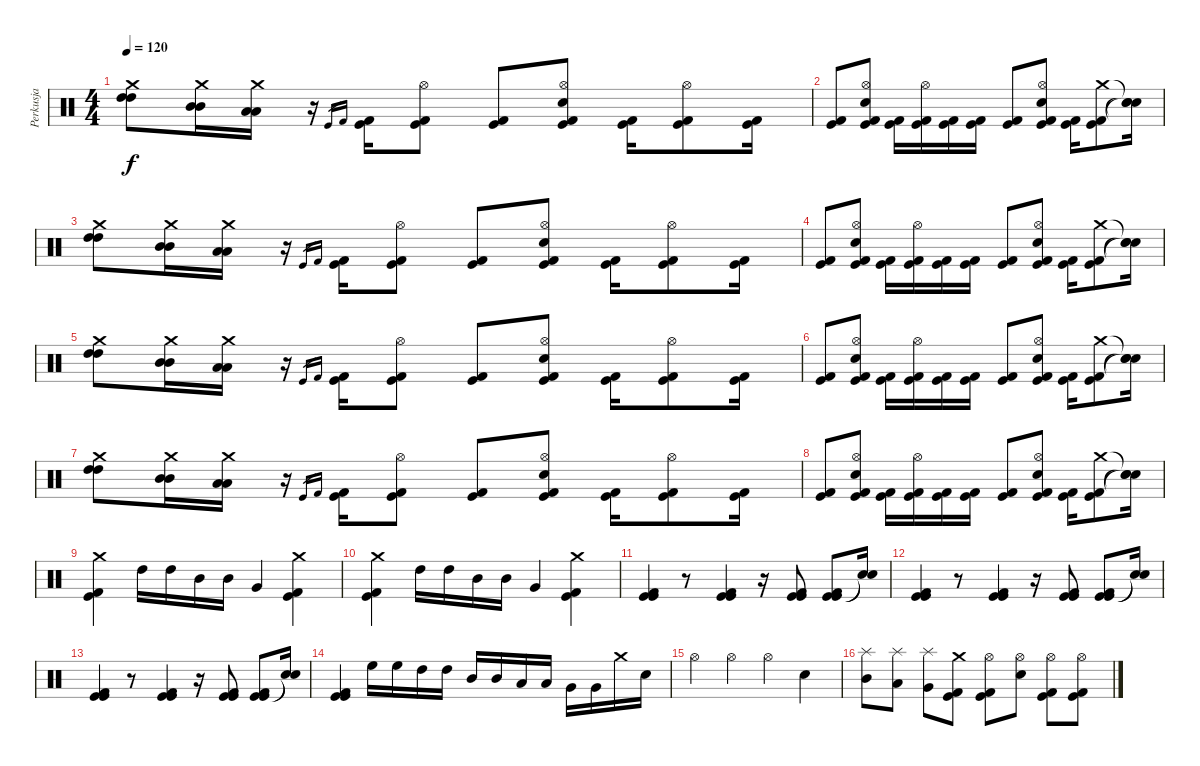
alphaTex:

\track ("Perkusja" "Perkusja") {instrument percussion}
\staff {score}
\articulation defaults
\ts (4 4)
\tempo 120
\clef neutral
\ks c
("Crash medium (hit)" "High Tom (hit)" "High Tom (hit)").8{dy f} ("Crash medium (hit)" "Mid Tom (hit)" "Mid Tom (hit)").16 ("Crash medium (hit)" "Low Tom (hit)" "Low Tom (hit)").16 r.16 "Kick (hit)".16{gr} "Kick (hit) 2".16{gr} ("Kick (hit)" "Kick (hit) 2").16 ("Hi-Hat (open)" "Kick (hit)" "Kick (hit) 2").8 ("Kick (hit)" "Kick (hit) 2").8 ("Hi-Hat (open)" "Snare (hit) 2" "Kick (hit)" "Kick (hit) 2").8 ("Kick (hit)" "Kick (hit) 2").16 ("Hi-Hat (open)" "Kick (hit)" "Kick (hit) 2").8 ("Kick (hit)" "Kick (hit) 2").16 |
("Kick (hit)" "Kick (hit) 2").8 ("Snare (hit) 2" "Hi-Hat (open)" "Kick (hit)" "Kick (hit) 2").8 ("Kick (hit)" "Kick (hit) 2").16 ("Hi-Hat (open)" "Kick (hit)" "Kick (hit) 2").16 ("Kick (hit)" "Kick (hit) 2").16 ("Kick (hit)" "Kick (hit) 2").16 ("Kick (hit)" "Kick (hit) 2").8 ("Hi-Hat (open)" "Snare (hit) 2" "Kick (hit)" "Kick (hit) 2").8 ("Kick (hit)" "Kick (hit) 2").16 ("Crash medium (hit)" "Kick (hit)" "Kick (hit) 2").8 ("Snare (hit)"{t} "Snare (hit)"{t} "Snare (hit)"{t}).16 |
("Crash medium (hit)" "High Tom (hit)" "High Tom (hit)").8 ("Crash medium (hit)" "Mid Tom (hit)" "Mid Tom (hit)").16 ("Crash medium (hit)" "Low Tom (hit)" "Low Tom (hit)").16 r.16 "Kick (hit)".16{gr} "Kick (hit) 2".16{gr} ("Kick (hit)" "Kick (hit) 2").16 ("Hi-Hat (open)" "Kick (hit)" "Kick (hit) 2").8 ("Kick (hit)" "Kick (hit) 2").8 ("Hi-Hat (open)" "Snare (hit) 2" "Kick (hit)" "Kick (hit) 2").8 ("Kick (hit)" "Kick (hit) 2").16 ("Hi-Hat (open)" "Kick (hit)" "Kick (hit) 2").8 ("Kick (hit)" "Kick (hit) 2").16 |
("Kick (hit)" "Kick (hit) 2").8 ("Snare (hit) 2" "Hi-Hat (open)" "Kick (hit)" "Kick (hit) 2").8 ("Kick (hit)" "Kick (hit) 2").16 ("Hi-Hat (open)" "Kick (hit)" "Kick (hit) 2").16 ("Kick (hit)" "Kick (hit) 2").16 ("Kick (hit)" "Kick (hit) 2").16 ("Kick (hit)" "Kick (hit) 2").8 ("Hi-Hat (open)" "Snare (hit) 2" "Kick (hit)" "Kick (hit) 2").8 ("Kick (hit)" "Kick (hit) 2").16 ("Crash medium (hit)" "Kick (hit)" "Kick (hit) 2").8 ("Snare (hit)"{t} "Snare (hit)"{t} "Snare (hit)"{t}).16 |
("Crash medium (hit)" "High Tom (hit)" "High Tom (hit)").8 ("Crash medium (hit)" "Mid Tom (hit)" "Mid Tom (hit)").16 ("Crash medium (hit)" "Low Tom (hit)" "Low Tom (hit)").16 r.16 "Kick (hit)".16{gr} "Kick (hit) 2".16{gr} ("Kick (hit)" "Kick (hit) 2").16 ("Hi-Hat (open)" "Kick (hit)" "Kick (hit) 2").8 ("Kick (hit)" "Kick (hit) 2").8 ("Hi-Hat (open)" "Snare (hit) 2" "Kick (hit)" "Kick (hit) 2").8 ("Kick (hit)" "Kick (hit) 2").16 ("Hi-Hat (open)" "Kick (hit)" "Kick (hit) 2").8 ("Kick (hit)" "Kick (hit) 2").16 |
("Kick (hit)" "Kick (hit) 2").8 ("Snare (hit) 2" "Hi-Hat (open)" "Kick (hit)" "Kick (hit) 2").8 ("Kick (hit)" "Kick (hit) 2").16 ("Hi-Hat (open)" "Kick (hit)" "Kick (hit) 2").16 ("Kick (hit)" "Kick (hit) 2").16 ("Kick (hit)" "Kick (hit) 2").16 ("Kick (hit)" "Kick (hit) 2").8 ("Hi-Hat (open)" "Snare (hit) 2" "Kick (hit)" "Kick (hit) 2").8 ("Kick (hit)" "Kick (hit) 2").16 ("Crash medium (hit)" "Kick (hit)" "Kick (hit) 2").8 ("Snare (hit)"{t} "Snare (hit)"{t} "Snare (hit)"{t}).16 |
("Crash medium (hit)" "High Tom (hit)" "High Tom (hit)").8 ("Crash medium (hit)" "Mid Tom (hit)" "Mid Tom (hit)").16 ("Crash medium (hit)" "Low Tom (hit)" "Low Tom (hit)").16 r.16 "Kick (hit)".16{gr} "Kick (hit) 2".16{gr} ("Kick (hit)" "Kick (hit) 2").16 ("Hi-Hat (open)" "Kick (hit)" "Kick (hit) 2").8 ("Kick (hit)" "Kick (hit) 2").8 ("Hi-Hat (open)" "Snare (hit) 2" "Kick (hit)" "Kick (hit) 2").8 ("Kick (hit)" "Kick (hit) 2").16 ("Hi-Hat (open)" "Kick (hit)" "Kick (hit) 2").8 ("Kick (hit)" "Kick (hit) 2").16 |
("Kick (hit)" "Kick (hit) 2").8 ("Snare (hit) 2" "Hi-Hat (open)" "Kick (hit)" "Kick (hit) 2").8 ("Kick (hit)" "Kick (hit) 2").16 ("Hi-Hat (open)" "Kick (hit)" "Kick (hit) 2").16 ("Kick (hit)" "Kick (hit) 2").16 ("Kick (hit)" "Kick (hit) 2").16 ("Kick (hit)" "Kick (hit) 2").8 ("Hi-Hat (open)" "Snare (hit) 2" "Kick (hit)" "Kick (hit) 2").8 ("Kick (hit)" "Kick (hit) 2").16 ("Crash medium (hit)" "Kick (hit)" "Kick (hit) 2").8 ("Snare (hit)"{t} "Snare (hit)"{t} "Snare (hit)"{t}).16 |
("Crash medium (hit)" "Kick (hit)" "Kick (hit) 2").4 "High Tom (hit)".16 "High Tom (hit)".16 "Mid Tom (hit)".16 "Mid Tom (hit)".16 "Very Low Tom (hit)".4 ("Crash medium (hit)" "Kick (hit)" "Kick (hit) 2").4 |
("Crash medium (hit)" "Kick (hit)" "Kick (hit) 2").4 "High Tom (hit)".16 "High Tom (hit)".16 "Mid Tom (hit)".16 "Mid Tom (hit)".16 "Very Low Tom (hit)".4 ("Crash medium (hit)" "Kick (hit)" "Kick (hit) 2").4 |
("Kick (hit)" "Kick (hit)" "Kick (hit) 2").4 r.8 ("Kick (hit)" "Kick (hit)" "Kick (hit) 2").4 r.16 ("Kick (hit)" "Kick (hit)" "Kick (hit) 2").8 ("Kick (hit)" "Kick (hit)" "Kick (hit) 2").8 ("Snare (hit)"{t} "Snare (hit)"{t}).16 |
("Kick (hit)" "Kick (hit)" "Kick (hit) 2").4 r.8 ("Kick (hit)" "Kick (hit)" "Kick (hit) 2").4 r.16 ("Kick (hit)" "Kick (hit)" "Kick (hit) 2").8 ("Kick (hit)" "Kick (hit)" "Kick (hit) 2").8 ("Snare (hit)"{t} "Snare (hit)"{t}).16 |
("Kick (hit)" "Kick (hit)" "Kick (hit) 2").4 r.8 ("Kick (hit)" "Kick (hit)" "Kick (hit) 2").4 r.16 ("Kick (hit)" "Kick (hit)" "Kick (hit) 2").8 ("Kick (hit)" "Kick (hit)" "Kick (hit) 2").8 ("Snare (hit)"{t} "Snare (hit)"{t}).16 |
("Kick (hit)" "Kick (hit)" "Kick (hit) 2").4 "High Floor Tom (hit)".16 "High Floor Tom (hit)".16 "High Tom (hit)".16 "High Tom (hit)".16 "Mid Tom (hit)".16 "Mid Tom (hit)".16 "Low Tom (hit)".16 "Low Tom (hit)".16 "Very Low Tom (hit)".16 "Very Low Tom (hit)".16 "Crash medium (hit)".16 "Snare (hit)"{x}.16 |
"Hi-Hat (open)".4 "Hi-Hat (open)".4 "Hi-Hat (open)".4 "Snare (hit)"{x}.4 |
("Splash (hit)" "Mid Tom (hit)").8 ("Splash (hit)" "Low Tom (hit)").8 ("Splash (hit)" "Very Low Tom (hit)").8 ("Crash medium (hit)" "Kick (hit)" "Kick (hit) 2").8 ("Hi-Hat (open)" "Kick (hit)" "Kick (hit) 2").8 ("Hi-Hat (open)" "Snare (hit) 2").8 ("Hi-Hat (open)" "Kick (hit)" "Kick (hit) 2").8 ("Hi-Hat (open)" "Kick (hit)" "Kick (hit) 2").8
